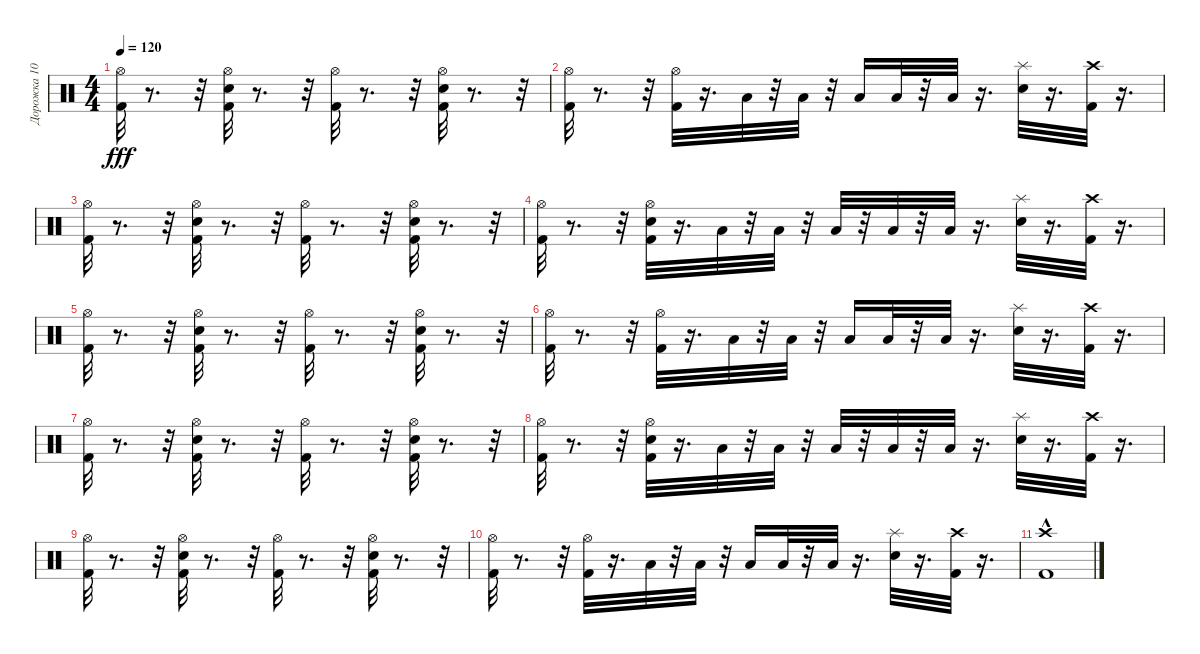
\track ("Дорожка 10" "Дорожка 10") {instrument percussion}
\staff {score}
\articulation defaults
\ts (4 4)
\tempo 120
\clef neutral
\ks c
("Hi-Hat (open)" "Kick (hit) 2").32{dy fff} r.8{d} r.32 ("Hi-Hat (open)" "Electric Snare (hit)" "Kick (hit) 2").32 r.8{d} r.32 ("Hi-Hat (open)" "Kick (hit) 2").32 r.8{d} r.32 ("Hi-Hat (open)" "Electric Snare (hit)" "Kick (hit) 2").32 r.8{d} r.32 |
("Hi-Hat (open)" "Kick (hit) 2").32 r.8{d} r.32 ("Hi-Hat (open)" "Kick (hit) 2").32 r.16{d} "Low Floor Tom (hit)".32 r.32 "Low Floor Tom (hit)".32 r.32 "Low Floor Tom (hit)".16 "Low Floor Tom (hit)".32 r.32 "Low Floor Tom (hit)".32 r.16{d} ("Splash (hit)" "Electric Snare (hit)").32 r.16{d} ("Kick (hit) 2" "Crash high (hit)").32 r.16{d} |
("Hi-Hat (open)" "Kick (hit) 2").32 r.8{d} r.32 ("Hi-Hat (open)" "Electric Snare (hit)" "Kick (hit) 2").32 r.8{d} r.32 ("Hi-Hat (open)" "Kick (hit) 2").32 r.8{d} r.32 ("Hi-Hat (open)" "Electric Snare (hit)" "Kick (hit) 2").32 r.8{d} r.32 |
("Kick (hit) 2" "Hi-Hat (open)").32 r.8{d} r.32 ("Hi-Hat (open)" "Electric Snare (hit)" "Kick (hit) 2").32 r.16{d} "Low Floor Tom (hit)".32 r.32 "Low Floor Tom (hit)".32 r.32 "Low Floor Tom (hit)".32 r.32 "Low Floor Tom (hit)".32 r.32 "Low Floor Tom (hit)".32 r.16{d} ("Electric Snare (hit)" "Splash (hit)").32 r.16{d} ("Kick (hit) 2" "Crash high (hit)").32 r.16{d} |
("Hi-Hat (open)" "Kick (hit) 2").32 r.8{d} r.32 ("Hi-Hat (open)" "Electric Snare (hit)" "Kick (hit) 2").32 r.8{d} r.32 ("Hi-Hat (open)" "Kick (hit) 2").32 r.8{d} r.32 ("Hi-Hat (open)" "Electric Snare (hit)" "Kick (hit) 2").32 r.8{d} r.32 |
("Hi-Hat (open)" "Kick (hit) 2").32 r.8{d} r.32 ("Hi-Hat (open)" "Kick (hit) 2").32 r.16{d} "Low Floor Tom (hit)".32 r.32 "Low Floor Tom (hit)".32 r.32 "Low Floor Tom (hit)".16 "Low Floor Tom (hit)".32 r.32 "Low Floor Tom (hit)".32 r.16{d} ("Splash (hit)" "Electric Snare (hit)").32 r.16{d} ("Kick (hit) 2" "Crash high (hit)").32 r.16{d} |
("Hi-Hat (open)" "Kick (hit) 2").32 r.8{d} r.32 ("Hi-Hat (open)" "Electric Snare (hit)" "Kick (hit) 2").32 r.8{d} r.32 ("Hi-Hat (open)" "Kick (hit) 2").32 r.8{d} r.32 ("Hi-Hat (open)" "Electric Snare (hit)" "Kick (hit) 2").32 r.8{d} r.32 |
("Kick (hit) 2" "Hi-Hat (open)").32 r.8{d} r.32 ("Hi-Hat (open)" "Electric Snare (hit)" "Kick (hit) 2").32 r.16{d} "Low Floor Tom (hit)".32 r.32 "Low Floor Tom (hit)".32 r.32 "Low Floor Tom (hit)".32 r.32 "Low Floor Tom (hit)".32 r.32 "Low Floor Tom (hit)".32 r.16{d} ("Electric Snare (hit)" "Splash (hit)").32 r.16{d} ("Kick (hit) 2" "Crash high (hit)").32 r.16{d} |
("Hi-Hat (open)" "Kick (hit) 2").32 r.8{d} r.32 ("Hi-Hat (open)" "Electric Snare (hit)" "Kick (hit) 2").32 r.8{d} r.32 ("Hi-Hat (open)" "Kick (hit) 2").32 r.8{d} r.32 ("Hi-Hat (open)" "Electric Snare (hit)" "Kick (hit) 2").32 r.8{d} r.32 |
("Hi-Hat (open)" "Kick (hit) 2").32 r.8{d} r.32 ("Hi-Hat (open)" "Kick (hit) 2").32 r.16{d} "Low Floor Tom (hit)".32 r.32 "Low Floor Tom (hit)".32 r.32 "Low Floor Tom (hit)".16 "Low Floor Tom (hit)".32 r.32 "Low Floor Tom (hit)".32 r.16{d} ("Splash (hit)" "Electric Snare (hit)").32 r.16{d} ("Kick (hit) 2" "Crash high (hit)").32 r.16{d} |
("Kick (hit) 2"{hac} "Crash high (hit)").1
